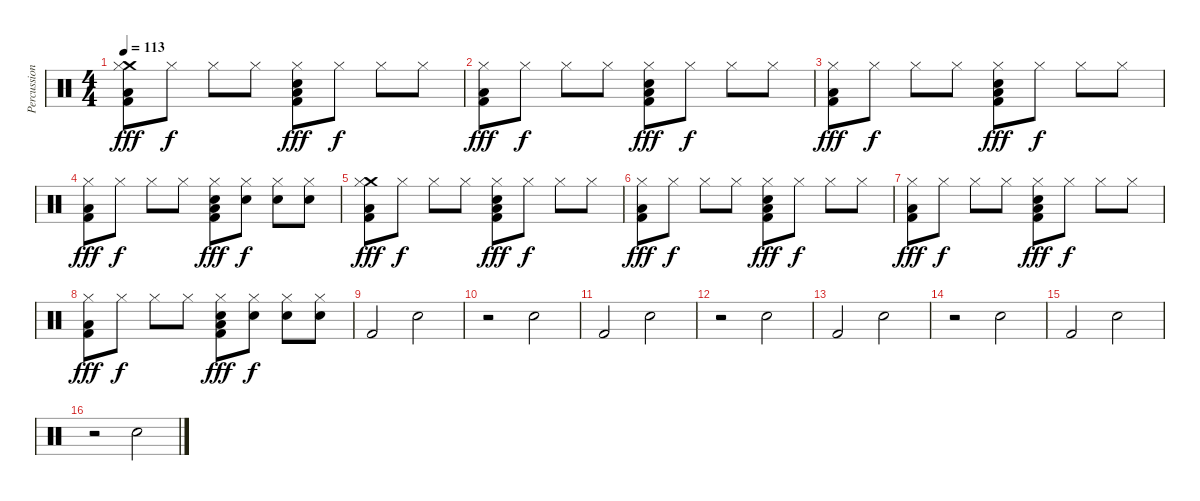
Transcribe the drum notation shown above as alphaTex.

\track ("Percussion" "Percussion") {instrument percussion}
\staff {score}
\articulation defaults
\ts (4 4)
\tempo 113
\clef neutral
\ks c
("Crash medium (hit)" "Low Floor Tom (hit)" "Hi-Hat (closed)" "Kick (hit) 2").8{dy fff} "Hi-Hat (closed)".8{dy f} "Hi-Hat (closed)".8 "Hi-Hat (closed)".8 ("Low Floor Tom (hit)" "Hi-Hat (closed)" "Electric Snare (hit)" "Kick (hit) 2").8{dy fff} "Hi-Hat (closed)".8{dy f} "Hi-Hat (closed)".8 "Hi-Hat (closed)".8 |
("Low Floor Tom (hit)" "Hi-Hat (closed)" "Kick (hit) 2").8{dy fff} "Hi-Hat (closed)".8{dy f} "Hi-Hat (closed)".8 "Hi-Hat (closed)".8 ("Low Floor Tom (hit)" "Hi-Hat (closed)" "Electric Snare (hit)" "Kick (hit) 2").8{dy fff} "Hi-Hat (closed)".8{dy f} "Hi-Hat (closed)".8 "Hi-Hat (closed)".8 |
("Low Floor Tom (hit)" "Hi-Hat (closed)" "Kick (hit) 2").8{dy fff} "Hi-Hat (closed)".8{dy f} "Hi-Hat (closed)".8 "Hi-Hat (closed)".8 ("Low Floor Tom (hit)" "Hi-Hat (closed)" "Electric Snare (hit)" "Kick (hit) 2").8{dy fff} "Hi-Hat (closed)".8{dy f} "Hi-Hat (closed)".8 "Hi-Hat (closed)".8 |
("Low Floor Tom (hit)" "Hi-Hat (closed)" "Kick (hit) 2").8{dy fff} "Hi-Hat (closed)".8{dy f} "Hi-Hat (closed)".8 "Hi-Hat (closed)".8 ("Low Floor Tom (hit)" "Hi-Hat (closed)" "Electric Snare (hit)" "Kick (hit) 2").8{dy fff} ("Snare (hit) 2" "Hi-Hat (closed)").8{dy f} ("Snare (hit) 2" "Hi-Hat (closed)").8 ("Snare (hit) 2" "Hi-Hat (closed)").8 |
("Crash medium (hit)" "Low Floor Tom (hit)" "Hi-Hat (closed)" "Kick (hit) 2").8{dy fff} "Hi-Hat (closed)".8{dy f} "Hi-Hat (closed)".8 "Hi-Hat (closed)".8 ("Low Floor Tom (hit)" "Hi-Hat (closed)" "Electric Snare (hit)" "Kick (hit) 2").8{dy fff} "Hi-Hat (closed)".8{dy f} "Hi-Hat (closed)".8 "Hi-Hat (closed)".8 |
("Low Floor Tom (hit)" "Hi-Hat (closed)" "Kick (hit) 2").8{dy fff} "Hi-Hat (closed)".8{dy f} "Hi-Hat (closed)".8 "Hi-Hat (closed)".8 ("Low Floor Tom (hit)" "Hi-Hat (closed)" "Electric Snare (hit)" "Kick (hit) 2").8{dy fff} "Hi-Hat (closed)".8{dy f} "Hi-Hat (closed)".8 "Hi-Hat (closed)".8 |
("Low Floor Tom (hit)" "Hi-Hat (closed)" "Kick (hit) 2").8{dy fff} "Hi-Hat (closed)".8{dy f} "Hi-Hat (closed)".8 "Hi-Hat (closed)".8 ("Low Floor Tom (hit)" "Hi-Hat (closed)" "Electric Snare (hit)" "Kick (hit) 2").8{dy fff} "Hi-Hat (closed)".8{dy f} "Hi-Hat (closed)".8 "Hi-Hat (closed)".8 |
("Low Floor Tom (hit)" "Hi-Hat (closed)" "Kick (hit) 2").8{dy fff} "Hi-Hat (closed)".8{dy f} "Hi-Hat (closed)".8 "Hi-Hat (closed)".8 ("Low Floor Tom (hit)" "Hi-Hat (closed)" "Electric Snare (hit)" "Kick (hit) 2").8{dy fff} ("Snare (hit) 2" "Hi-Hat (closed)").8{dy f} ("Snare (hit) 2" "Hi-Hat (closed)").8 ("Snare (hit) 2" "Hi-Hat (closed)").8 |
"Kick (hit) 2".2 "Electric Snare (hit)".2 |
r.2 "Electric Snare (hit)".2 |
"Kick (hit) 2".2 "Electric Snare (hit)".2 |
r.2 "Electric Snare (hit)".2 |
"Kick (hit) 2".2 "Electric Snare (hit)".2 |
r.2 "Electric Snare (hit)".2 |
"Kick (hit) 2".2 "Electric Snare (hit)".2 |
r.2 "Electric Snare (hit)".2
